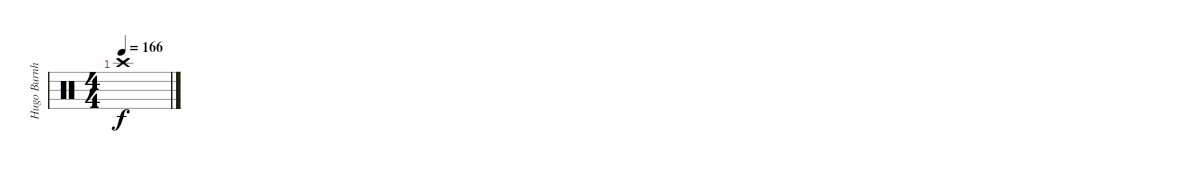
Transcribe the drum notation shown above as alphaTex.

\track ("Hugo Burnham" "Hugo Burnh") {instrument percussion}
\staff {score}
\articulation defaults
\ts (4 4)
\tempo 166
\clef neutral
\ks c "Crash high (hit)".1{dy f}
